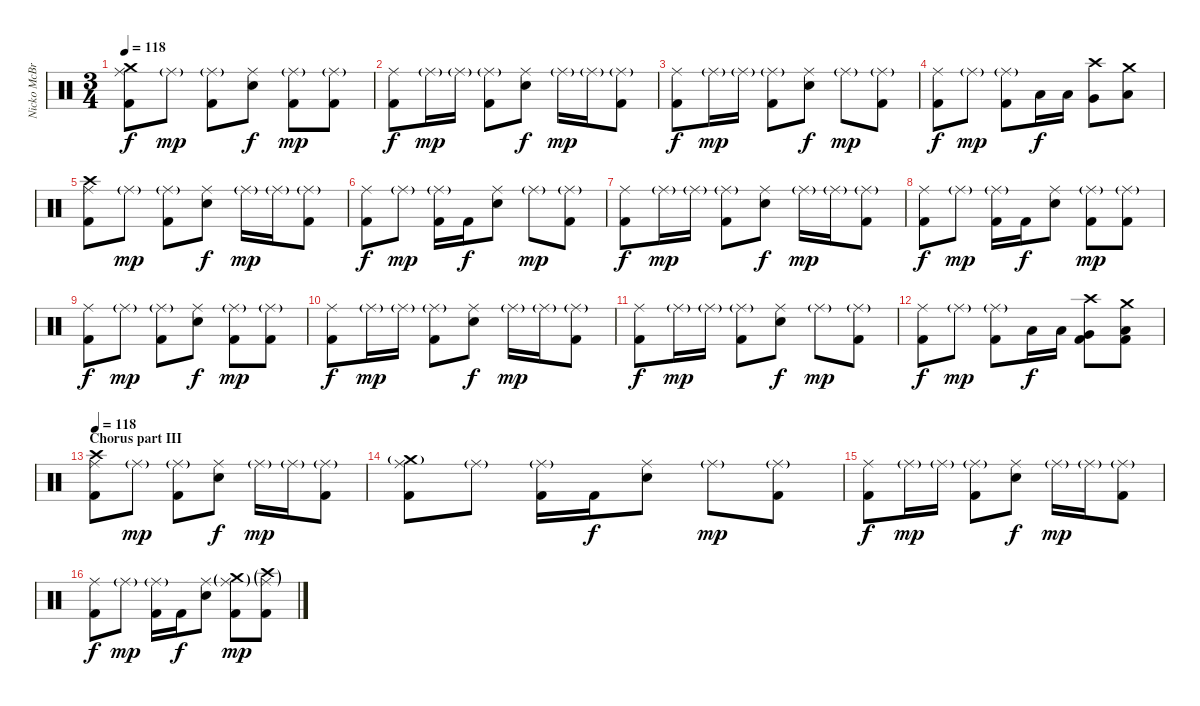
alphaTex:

\track ("Nicko McBrain" "Nicko McBr") {instrument percussion}
\staff {score}
\articulation defaults
\ts (3 4)
\tempo 118
\clef neutral
\ks c
("Ride (middle)" "Crash medium (hit)" "Kick (hit) 2").8{dy f} "Ride (middle)"{g}.8{dy mp} ("Ride (middle)"{g} "Kick (hit) 2").8 ("Ride (middle)" "Electric Snare (hit)").8{dy f} ("Ride (middle)"{g} "Kick (hit) 2").8{dy mp} ("Ride (middle)"{g} "Kick (hit) 2").8 |
("Ride (middle)" "Kick (hit) 2").8{dy f} "Ride (middle)"{g}.16{dy mp} "Ride (middle)"{g}.16 ("Ride (middle)"{g} "Kick (hit) 2").8 ("Ride (middle)" "Electric Snare (hit)").8{dy f} "Ride (middle)"{g}.16{dy mp} "Ride (middle)"{g}.16 ("Ride (middle)"{g} "Kick (hit) 2").8 |
("Ride (middle)" "Kick (hit) 2").8{dy f} "Ride (middle)"{g}.16{dy mp} "Ride (middle)"{g}.16 ("Ride (middle)"{g} "Kick (hit) 2").8 ("Ride (middle)" "Electric Snare (hit)").8{dy f} "Ride (middle)"{g}.8{dy mp} ("Ride (middle)"{g} "Kick (hit) 2").8 |
("Ride (middle)" "Kick (hit) 2").8{dy f} "Ride (middle)"{g}.8{dy mp} ("Ride (middle)"{g} "Kick (hit) 2").8 "Low Tom (hit)".16{dy f} "Low Tom (hit)".16 ("Very Low Tom (hit)" "Crash high (hit)").8 ("Low Floor Tom (hit)" "Crash medium (hit)").8 |
("Ride (middle)" "Crash high (hit)" "Kick (hit) 2").8 "Ride (middle)"{g}.8{dy mp} ("Ride (middle)"{g} "Kick (hit) 2").8 ("Ride (middle)" "Electric Snare (hit)").8{dy f} "Ride (middle)"{g}.16{dy mp} "Ride (middle)"{g}.16 ("Ride (middle)"{g} "Kick (hit) 2").8 |
("Ride (middle)" "Kick (hit) 2").8{dy f} "Ride (middle)"{g}.8{dy mp} ("Ride (middle)"{g} "Kick (hit) 2").16 "Kick (hit) 2".16{dy f} ("Ride (middle)" "Electric Snare (hit)").8 "Ride (middle)"{g}.8{dy mp} ("Ride (middle)"{g} "Kick (hit) 2").8 |
("Ride (middle)" "Kick (hit) 2").8{dy f} "Ride (middle)"{g}.16{dy mp} "Ride (middle)"{g}.16 ("Ride (middle)"{g} "Kick (hit) 2").8 ("Ride (middle)" "Electric Snare (hit)").8{dy f} "Ride (middle)"{g}.16{dy mp} "Ride (middle)"{g}.16 ("Ride (middle)"{g} "Kick (hit) 2").8 |
("Ride (middle)" "Kick (hit) 2").8{dy f} "Ride (middle)"{g}.8{dy mp} ("Ride (middle)"{g} "Kick (hit) 2").16 "Kick (hit) 2".16{dy f} ("Ride (middle)" "Electric Snare (hit)").8 ("Ride (middle)"{g} "Kick (hit) 2").8{dy mp} ("Ride (middle)"{g} "Kick (hit) 2").8 |
("Ride (middle)" "Kick (hit) 2").8{dy f} "Ride (middle)"{g}.8{dy mp} ("Ride (middle)"{g} "Kick (hit) 2").8 ("Ride (middle)" "Electric Snare (hit)").8{dy f} ("Ride (middle)"{g} "Kick (hit) 2").8{dy mp} ("Ride (middle)"{g} "Kick (hit) 2").8 |
("Ride (middle)" "Kick (hit) 2").8{dy f} "Ride (middle)"{g}.16{dy mp} "Ride (middle)"{g}.16 ("Ride (middle)"{g} "Kick (hit) 2").8 ("Ride (middle)" "Electric Snare (hit)").8{dy f} "Ride (middle)"{g}.16{dy mp} "Ride (middle)"{g}.16 ("Ride (middle)"{g} "Kick (hit) 2").8 |
("Ride (middle)" "Kick (hit) 2").8{dy f} "Ride (middle)"{g}.16{dy mp} "Ride (middle)"{g}.16 ("Ride (middle)"{g} "Kick (hit) 2").8 ("Ride (middle)" "Electric Snare (hit)").8{dy f} "Ride (middle)"{g}.8{dy mp} ("Ride (middle)"{g} "Kick (hit) 2").8 |
("Ride (middle)" "Kick (hit) 2").8{dy f} "Ride (middle)"{g}.8{dy mp} ("Ride (middle)"{g} "Kick (hit) 2").8 "Low Tom (hit)".16{dy f} "Low Tom (hit)".16 ("Very Low Tom (hit)" "Crash high (hit)" "Kick (hit) 2").8 ("Low Floor Tom (hit)" "Crash medium (hit)" "Kick (hit) 2").8 |
\section ("" "Chorus part III")
\tempo 118
("Ride (middle)" "Crash high (hit)" "Kick (hit) 2").8 "Ride (middle)"{g}.8{dy mp} ("Ride (middle)"{g} "Kick (hit) 2").8 ("Ride (middle)" "Electric Snare (hit)").8{dy f} "Ride (middle)"{g}.16{dy mp} "Ride (middle)"{g}.16 ("Ride (middle)"{g} "Kick (hit) 2").8 |
("Ride (middle)" "Crash medium (hit)"{g} "Kick (hit) 2").8 "Ride (middle)"{g}.8 ("Ride (middle)"{g} "Kick (hit) 2").16 "Kick (hit) 2".16{dy f} ("Ride (middle)" "Electric Snare (hit)").8 "Ride (middle)"{g}.8{dy mp} ("Ride (middle)"{g} "Kick (hit) 2").8 |
("Ride (middle)" "Kick (hit) 2").8{dy f} "Ride (middle)"{g}.16{dy mp} "Ride (middle)"{g}.16 ("Ride (middle)"{g} "Kick (hit) 2").8 ("Ride (middle)" "Electric Snare (hit)").8{dy f} "Ride (middle)"{g}.16{dy mp} "Ride (middle)"{g}.16 ("Ride (middle)"{g} "Kick (hit) 2").8 |
("Ride (middle)" "Kick (hit) 2").8{dy f} "Ride (middle)"{g}.8{dy mp} ("Ride (middle)"{g} "Kick (hit) 2").16 "Kick (hit) 2".16{dy f} ("Ride (middle)" "Electric Snare (hit)").8 ("Ride (middle)"{g} "Crash medium (hit)"{g} "Kick (hit) 2").8{dy mp} ("Ride (middle)"{g} "Crash high (hit)"{g} "Kick (hit) 2").8
